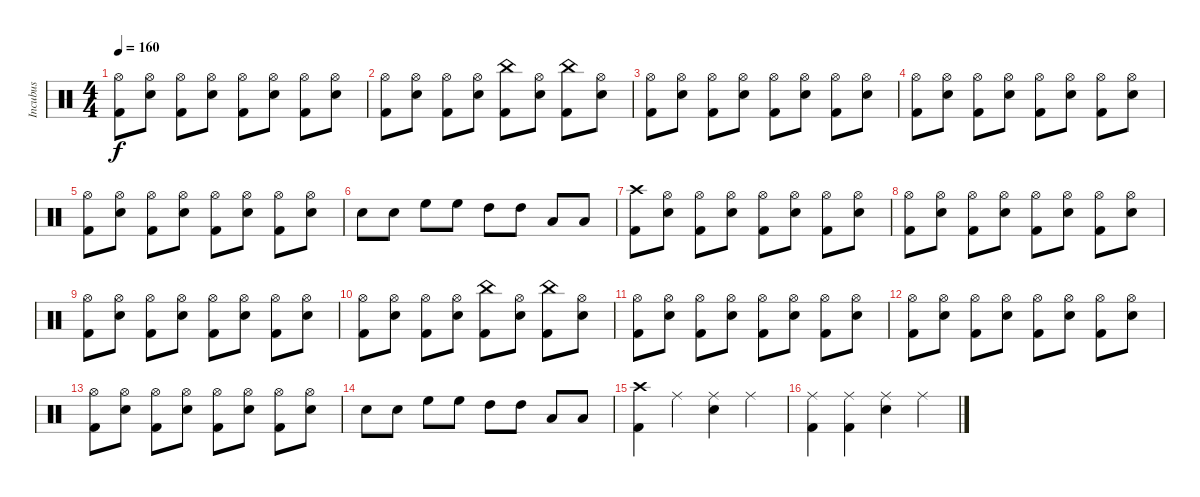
\track ("Incubus" "Incubus") {instrument percussion}
\staff {score}
\articulation defaults
\ts (4 4)
\tempo 160
\clef neutral
\ks c
("Hi-Hat (open)" "Kick (hit) 2").8{dy f} ("Hi-Hat (open)" "Snare (hit) 2").8 ("Hi-Hat (open)" "Kick (hit) 2").8 ("Hi-Hat (open)" "Snare (hit) 2").8 ("Hi-Hat (open)" "Kick (hit) 2").8 ("Hi-Hat (open)" "Snare (hit) 2").8 ("Hi-Hat (open)" "Kick (hit) 2").8 ("Hi-Hat (open)" "Snare (hit) 2").8 |
("Hi-Hat (open)" "Kick (hit) 2").8 ("Hi-Hat (open)" "Snare (hit) 2").8 ("Hi-Hat (open)" "Kick (hit) 2").8 ("Hi-Hat (open)" "Snare (hit) 2").8 ("China (hit)" "Kick (hit) 2").8 ("Hi-Hat (open)" "Snare (hit) 2").8 ("China (hit)" "Kick (hit) 2").8 ("Hi-Hat (open)" "Snare (hit) 2").8 |
("Hi-Hat (open)" "Kick (hit) 2").8 ("Hi-Hat (open)" "Snare (hit) 2").8 ("Hi-Hat (open)" "Kick (hit) 2").8 ("Hi-Hat (open)" "Snare (hit) 2").8 ("Hi-Hat (open)" "Kick (hit) 2").8 ("Hi-Hat (open)" "Snare (hit) 2").8 ("Hi-Hat (open)" "Kick (hit) 2").8 ("Hi-Hat (open)" "Snare (hit) 2").8 |
("Hi-Hat (open)" "Kick (hit) 2").8 ("Hi-Hat (open)" "Snare (hit) 2").8 ("Hi-Hat (open)" "Kick (hit) 2").8 ("Hi-Hat (open)" "Snare (hit) 2").8 ("Hi-Hat (open)" "Kick (hit) 2").8 ("Hi-Hat (open)" "Snare (hit) 2").8 ("Hi-Hat (open)" "Kick (hit) 2").8 ("Hi-Hat (open)" "Snare (hit) 2").8 |
("Hi-Hat (open)" "Kick (hit) 2").8 ("Hi-Hat (open)" "Snare (hit) 2").8 ("Hi-Hat (open)" "Kick (hit) 2").8 ("Hi-Hat (open)" "Snare (hit) 2").8 ("Hi-Hat (open)" "Kick (hit) 2").8 ("Hi-Hat (open)" "Snare (hit) 2").8 ("Hi-Hat (open)" "Kick (hit) 2").8 ("Hi-Hat (open)" "Snare (hit) 2").8 |
"Snare (hit) 2".8 "Snare (hit) 2".8 "High Floor Tom (hit)".8 "High Floor Tom (hit)".8 "High Tom (hit)".8 "High Tom (hit)".8 "Low Tom (hit)".8 "Low Tom (hit)".8 |
("Crash high (hit)" "Kick (hit) 2").8 ("Hi-Hat (open)" "Snare (hit) 2").8 ("Hi-Hat (open)" "Kick (hit) 2").8 ("Hi-Hat (open)" "Snare (hit) 2").8 ("Hi-Hat (open)" "Kick (hit) 2").8 ("Hi-Hat (open)" "Snare (hit) 2").8 ("Hi-Hat (open)" "Kick (hit) 2").8 ("Hi-Hat (open)" "Snare (hit) 2").8 |
("Hi-Hat (open)" "Kick (hit) 2").8 ("Hi-Hat (open)" "Snare (hit) 2").8 ("Hi-Hat (open)" "Kick (hit) 2").8 ("Hi-Hat (open)" "Snare (hit) 2").8 ("Hi-Hat (open)" "Kick (hit) 2").8 ("Hi-Hat (open)" "Snare (hit) 2").8 ("Hi-Hat (open)" "Kick (hit) 2").8 ("Hi-Hat (open)" "Snare (hit) 2").8 |
("Hi-Hat (open)" "Kick (hit) 2").8 ("Hi-Hat (open)" "Snare (hit) 2").8 ("Hi-Hat (open)" "Kick (hit) 2").8 ("Hi-Hat (open)" "Snare (hit) 2").8 ("Hi-Hat (open)" "Kick (hit) 2").8 ("Hi-Hat (open)" "Snare (hit) 2").8 ("Hi-Hat (open)" "Kick (hit) 2").8 ("Hi-Hat (open)" "Snare (hit) 2").8 |
("Hi-Hat (open)" "Kick (hit) 2").8 ("Hi-Hat (open)" "Snare (hit) 2").8 ("Hi-Hat (open)" "Kick (hit) 2").8 ("Hi-Hat (open)" "Snare (hit) 2").8 ("China (hit)" "Kick (hit) 2").8 ("Hi-Hat (open)" "Snare (hit) 2").8 ("China (hit)" "Kick (hit) 2").8 ("Hi-Hat (open)" "Snare (hit) 2").8 |
("Hi-Hat (open)" "Kick (hit) 2").8 ("Hi-Hat (open)" "Snare (hit) 2").8 ("Hi-Hat (open)" "Kick (hit) 2").8 ("Hi-Hat (open)" "Snare (hit) 2").8 ("Hi-Hat (open)" "Kick (hit) 2").8 ("Hi-Hat (open)" "Snare (hit) 2").8 ("Hi-Hat (open)" "Kick (hit) 2").8 ("Hi-Hat (open)" "Snare (hit) 2").8 |
("Hi-Hat (open)" "Kick (hit) 2").8 ("Hi-Hat (open)" "Snare (hit) 2").8 ("Hi-Hat (open)" "Kick (hit) 2").8 ("Hi-Hat (open)" "Snare (hit) 2").8 ("Hi-Hat (open)" "Kick (hit) 2").8 ("Hi-Hat (open)" "Snare (hit) 2").8 ("Hi-Hat (open)" "Kick (hit) 2").8 ("Hi-Hat (open)" "Snare (hit) 2").8 |
("Hi-Hat (open)" "Kick (hit) 2").8 ("Hi-Hat (open)" "Snare (hit) 2").8 ("Hi-Hat (open)" "Kick (hit) 2").8 ("Hi-Hat (open)" "Snare (hit) 2").8 ("Hi-Hat (open)" "Kick (hit) 2").8 ("Hi-Hat (open)" "Snare (hit) 2").8 ("Hi-Hat (open)" "Kick (hit) 2").8 ("Hi-Hat (open)" "Snare (hit) 2").8 |
"Snare (hit) 2".8 "Snare (hit) 2".8 "High Floor Tom (hit)".8 "High Floor Tom (hit)".8 "High Tom (hit)".8 "High Tom (hit)".8 "Low Tom (hit)".8 "Low Tom (hit)".8 |
("Crash high (hit)" "Kick (hit) 2").4 "Ride (middle)".4 ("Ride (middle)" "Snare (hit) 2").4 "Ride (middle)".4 |
("Ride (middle)" "Kick (hit) 2").4 ("Ride (middle)" "Kick (hit) 2").4 ("Ride (middle)" "Snare (hit) 2").4 "Ride (middle)".4
